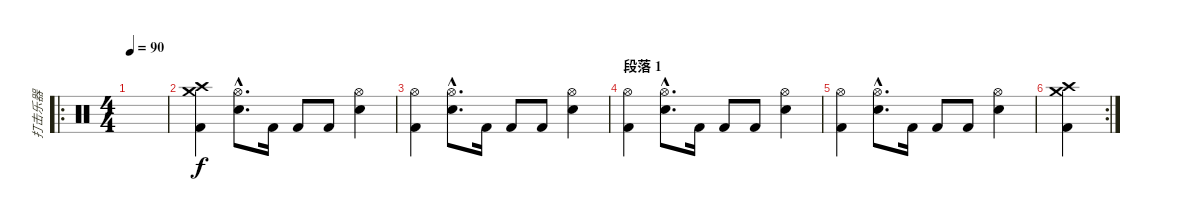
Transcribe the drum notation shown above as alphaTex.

\track ("打击乐器" "打击乐器") {instrument percussion}
\staff {score}
\articulation defaults
\ro
\ts (4 4)
\tempo 90
\clef neutral
\ks c
|
("Crash high (hit)" "Crash medium (hit)" "Kick (hit) 2").4 ("Hi-Hat (open)"{hac} "Electric Snare (hit)"{hac}).8{d} "Kick (hit) 2".16 "Kick (hit) 2".8 "Kick (hit) 2".8 ("Hi-Hat (open)" "Electric Snare (hit)").4 |
("Hi-Hat (open)" "Kick (hit) 2").4 ("Hi-Hat (open)"{hac} "Electric Snare (hit)"{hac}).8{d} "Kick (hit) 2".16 "Kick (hit) 2".8 "Kick (hit) 2".8 ("Hi-Hat (open)" "Electric Snare (hit)").4 |
\section ("" "段落 1")
("Hi-Hat (open)" "Kick (hit) 2").4 ("Hi-Hat (open)"{hac} "Electric Snare (hit)"{hac}).8{d} "Kick (hit) 2".16 "Kick (hit) 2".8 "Kick (hit) 2".8 ("Hi-Hat (open)" "Electric Snare (hit)").4 |
("Hi-Hat (open)" "Kick (hit) 2").4 ("Hi-Hat (open)"{hac} "Electric Snare (hit)"{hac}).8{d} "Kick (hit) 2".16 "Kick (hit) 2".8 "Kick (hit) 2".8 ("Hi-Hat (open)" "Electric Snare (hit)").4 |
\rc 2
("Crash high (hit)" "Crash medium (hit)" "Kick (hit) 2").4
